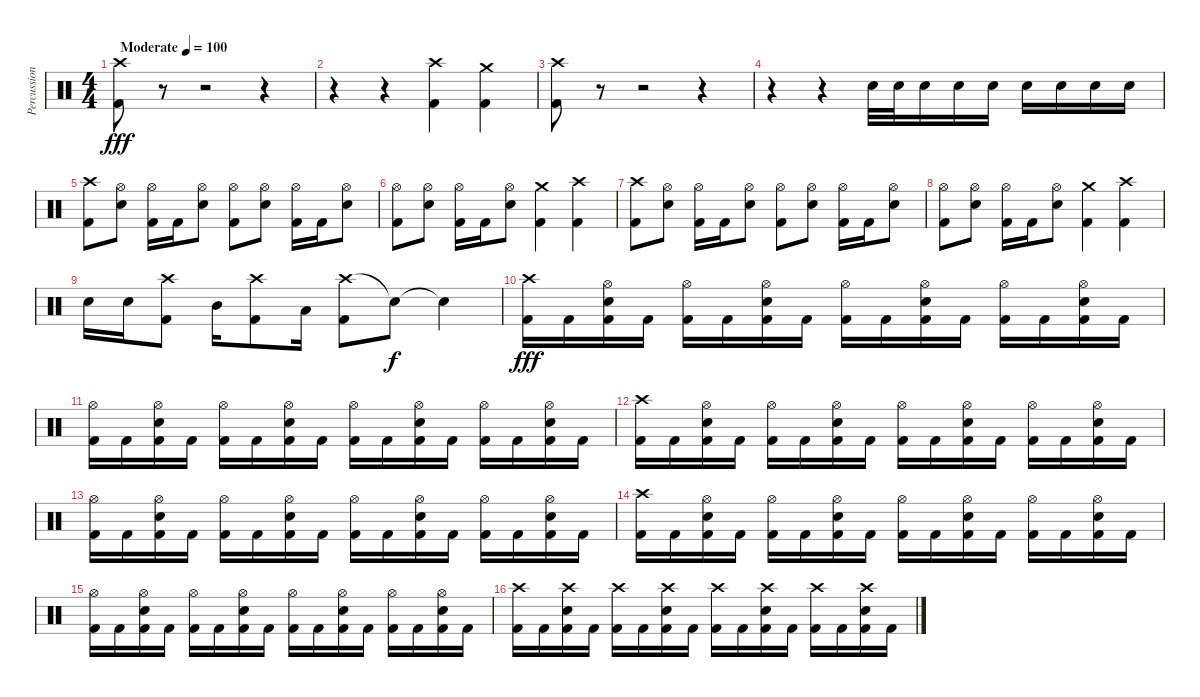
\track ("Percussion" "Percussion") {instrument percussion}
\staff {score}
\articulation defaults
\ts (4 4)
\tempo (100 "Moderate")
\clef neutral
\ks c
("Crash high (hit)" "Kick (hit) 2").8{dy fff} r.8 r.2 r.4 |
r.4 r.4 ("Crash high (hit)" "Kick (hit) 2").4 ("Crash medium (hit)" "Kick (hit) 2").4 |
("Crash high (hit)" "Kick (hit) 2").8 r.8 r.2 r.4 |
r.4 r.4 "Snare (hit) 2".32 "Snare (hit) 2".32 "Snare (hit) 2".16 "Snare (hit) 2".16 "Snare (hit) 2".16 "Snare (hit) 2".16 "Snare (hit) 2".16 "Snare (hit) 2".16 "Snare (hit) 2".16 |
("Crash high (hit)" "Kick (hit) 2").8 ("Hi-Hat (open)" "Snare (hit) 2").8 ("Hi-Hat (open)" "Kick (hit) 2").16 "Kick (hit) 2".16 ("Hi-Hat (open)" "Snare (hit) 2").8 ("Hi-Hat (open)" "Kick (hit) 2").8 ("Hi-Hat (open)" "Snare (hit) 2").8 ("Hi-Hat (open)" "Kick (hit) 2").16 "Kick (hit) 2".16 ("Hi-Hat (open)" "Snare (hit) 2").8 |
("Hi-Hat (open)" "Kick (hit) 2").8 ("Hi-Hat (open)" "Snare (hit) 2").8 ("Hi-Hat (open)" "Kick (hit) 2").16 "Kick (hit) 2".16 ("Hi-Hat (open)" "Snare (hit) 2").8 ("Crash medium (hit)" "Kick (hit) 2").4 ("Crash high (hit)" "Kick (hit) 2").4 |
("Crash high (hit)" "Kick (hit) 2").8 ("Hi-Hat (open)" "Snare (hit) 2").8 ("Hi-Hat (open)" "Kick (hit) 2").16 "Kick (hit) 2".16 ("Hi-Hat (open)" "Snare (hit) 2").8 ("Hi-Hat (open)" "Kick (hit) 2").8 ("Hi-Hat (open)" "Snare (hit) 2").8 ("Hi-Hat (open)" "Kick (hit) 2").16 "Kick (hit) 2".16 ("Hi-Hat (open)" "Snare (hit) 2").8 |
("Hi-Hat (open)" "Kick (hit) 2").8 ("Hi-Hat (open)" "Snare (hit) 2").8 ("Hi-Hat (open)" "Kick (hit) 2").16 "Kick (hit) 2".16 ("Hi-Hat (open)" "Snare (hit) 2").8 ("Crash medium (hit)" "Kick (hit) 2").4 ("Crash high (hit)" "Kick (hit) 2").4 |
"Snare (hit) 2".16 "Snare (hit) 2".16 ("Crash high (hit)" "Kick (hit) 2").8 "Mid Tom (hit)".16 ("Crash high (hit)" "Kick (hit) 2").8 "Low Tom (hit)".16 ("Crash high (hit)" "Kick (hit) 2").8 "Snare (hit)"{t}.8{dy f} "Snare (hit)"{t}.4 |
("Crash high (hit)" "Kick (hit) 2").16{dy fff} "Kick (hit) 2".16 ("Hi-Hat (open)" "Snare (hit) 2" "Kick (hit) 2").16 "Kick (hit) 2".16 ("Hi-Hat (open)" "Kick (hit) 2").16 "Kick (hit) 2".16 ("Hi-Hat (open)" "Snare (hit) 2" "Kick (hit) 2").16 "Kick (hit) 2".16 ("Hi-Hat (open)" "Kick (hit) 2").16 "Kick (hit) 2".16 ("Hi-Hat (open)" "Snare (hit) 2" "Kick (hit) 2").16 "Kick (hit) 2".16 ("Hi-Hat (open)" "Kick (hit) 2").16 "Kick (hit) 2".16 ("Hi-Hat (open)" "Snare (hit) 2" "Kick (hit) 2").16 "Kick (hit) 2".16 |
("Hi-Hat (open)" "Kick (hit) 2").16 "Kick (hit) 2".16 ("Hi-Hat (open)" "Snare (hit) 2" "Kick (hit) 2").16 "Kick (hit) 2".16 ("Hi-Hat (open)" "Kick (hit) 2").16 "Kick (hit) 2".16 ("Hi-Hat (open)" "Snare (hit) 2" "Kick (hit) 2").16 "Kick (hit) 2".16 ("Hi-Hat (open)" "Kick (hit) 2").16 "Kick (hit) 2".16 ("Hi-Hat (open)" "Snare (hit) 2" "Kick (hit) 2").16 "Kick (hit) 2".16 ("Hi-Hat (open)" "Kick (hit) 2").16 "Kick (hit) 2".16 ("Hi-Hat (open)" "Snare (hit) 2" "Kick (hit) 2").16 "Kick (hit) 2".16 |
("Crash high (hit)" "Kick (hit) 2").16 "Kick (hit) 2".16 ("Hi-Hat (open)" "Snare (hit) 2" "Kick (hit) 2").16 "Kick (hit) 2".16 ("Hi-Hat (open)" "Kick (hit) 2").16 "Kick (hit) 2".16 ("Hi-Hat (open)" "Snare (hit) 2" "Kick (hit) 2").16 "Kick (hit) 2".16 ("Hi-Hat (open)" "Kick (hit) 2").16 "Kick (hit) 2".16 ("Hi-Hat (open)" "Snare (hit) 2" "Kick (hit) 2").16 "Kick (hit) 2".16 ("Hi-Hat (open)" "Kick (hit) 2").16 "Kick (hit) 2".16 ("Hi-Hat (open)" "Snare (hit) 2" "Kick (hit) 2").16 "Kick (hit) 2".16 |
("Hi-Hat (open)" "Kick (hit) 2").16 "Kick (hit) 2".16 ("Hi-Hat (open)" "Snare (hit) 2" "Kick (hit) 2").16 "Kick (hit) 2".16 ("Hi-Hat (open)" "Kick (hit) 2").16 "Kick (hit) 2".16 ("Hi-Hat (open)" "Snare (hit) 2" "Kick (hit) 2").16 "Kick (hit) 2".16 ("Hi-Hat (open)" "Kick (hit) 2").16 "Kick (hit) 2".16 ("Hi-Hat (open)" "Snare (hit) 2" "Kick (hit) 2").16 "Kick (hit) 2".16 ("Hi-Hat (open)" "Kick (hit) 2").16 "Kick (hit) 2".16 ("Hi-Hat (open)" "Snare (hit) 2" "Kick (hit) 2").16 "Kick (hit) 2".16 |
("Crash high (hit)" "Kick (hit) 2").16 "Kick (hit) 2".16 ("Hi-Hat (open)" "Snare (hit) 2" "Kick (hit) 2").16 "Kick (hit) 2".16 ("Hi-Hat (open)" "Kick (hit) 2").16 "Kick (hit) 2".16 ("Hi-Hat (open)" "Snare (hit) 2" "Kick (hit) 2").16 "Kick (hit) 2".16 ("Hi-Hat (open)" "Kick (hit) 2").16 "Kick (hit) 2".16 ("Hi-Hat (open)" "Snare (hit) 2" "Kick (hit) 2").16 "Kick (hit) 2".16 ("Hi-Hat (open)" "Kick (hit) 2").16 "Kick (hit) 2".16 ("Hi-Hat (open)" "Snare (hit) 2" "Kick (hit) 2").16 "Kick (hit) 2".16 |
("Hi-Hat (open)" "Kick (hit) 2").16 "Kick (hit) 2".16 ("Hi-Hat (open)" "Snare (hit) 2" "Kick (hit) 2").16 "Kick (hit) 2".16 ("Hi-Hat (open)" "Kick (hit) 2").16 "Kick (hit) 2".16 ("Hi-Hat (open)" "Snare (hit) 2" "Kick (hit) 2").16 "Kick (hit) 2".16 ("Hi-Hat (open)" "Kick (hit) 2").16 "Kick (hit) 2".16 ("Hi-Hat (open)" "Snare (hit) 2" "Kick (hit) 2").16 "Kick (hit) 2".16 ("Hi-Hat (open)" "Kick (hit) 2").16 "Kick (hit) 2".16 ("Hi-Hat (open)" "Snare (hit) 2" "Kick (hit) 2").16 "Kick (hit) 2".16 |
("Crash high (hit)" "Kick (hit) 2").16 "Kick (hit) 2".16 ("Crash high (hit)" "Snare (hit) 2" "Kick (hit) 2").16 "Kick (hit) 2".16 ("Crash high (hit)" "Kick (hit) 2").16 "Kick (hit) 2".16 ("Crash high (hit)" "Snare (hit) 2" "Kick (hit) 2").16 "Kick (hit) 2".16 ("Crash high (hit)" "Kick (hit) 2").16 "Kick (hit) 2".16 ("Crash high (hit)" "Snare (hit) 2" "Kick (hit) 2").16 "Kick (hit) 2".16 ("Crash high (hit)" "Kick (hit) 2").16 "Kick (hit) 2".16 ("Crash high (hit)" "Snare (hit) 2" "Kick (hit) 2").16 "Kick (hit) 2".16
